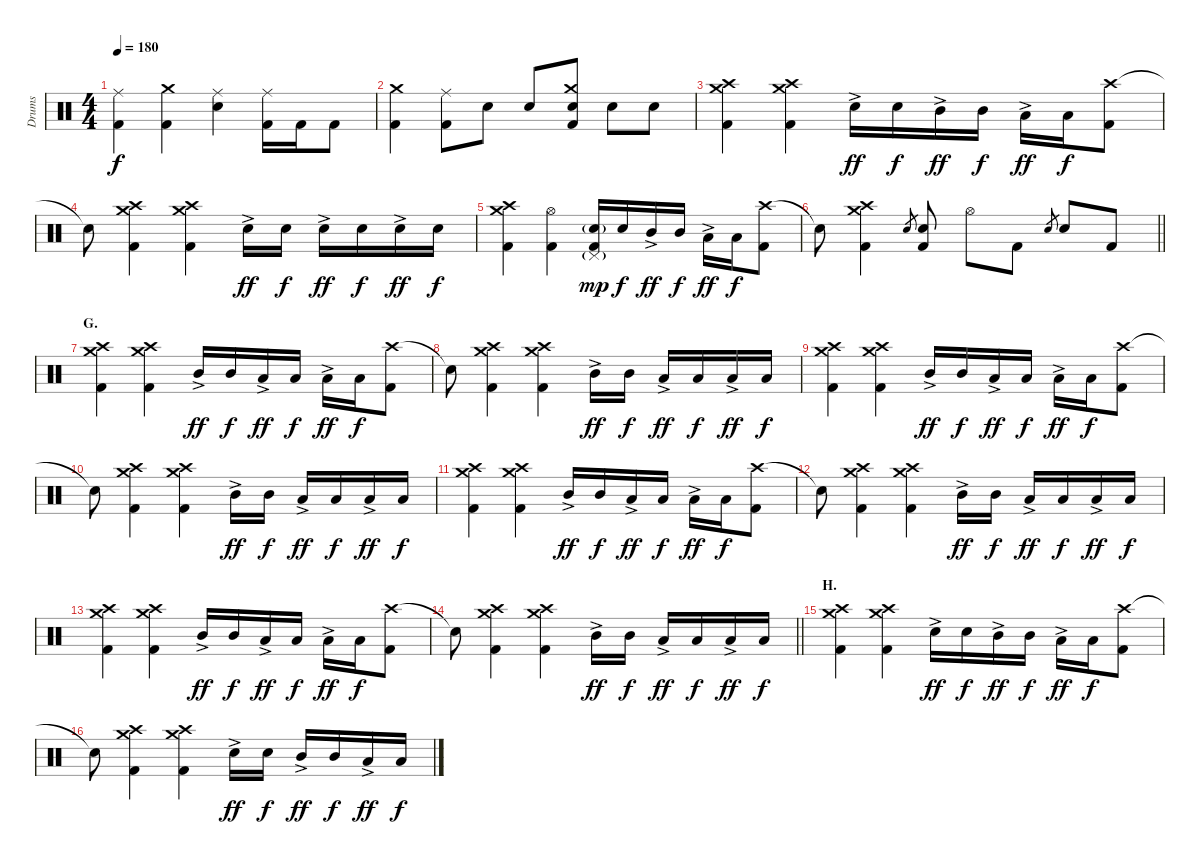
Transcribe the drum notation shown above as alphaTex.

\track ("Drums" "Drums") {instrument percussion}
\staff {score}
\articulation defaults
\ts (4 4)
\tempo 180
\clef neutral
\ks c
("Ride (middle)" "Kick (hit) 2").4{dy f} ("Crash medium (hit)" "Kick (hit) 2").4 ("Ride (middle)" "Electric Snare (hit)").4 ("Ride (middle)" "Kick (hit) 2").16 "Kick (hit) 2".16 "Kick (hit) 2".8 |
("Crash medium (hit)" "Kick (hit) 2").4 ("Ride (middle)" "Kick (hit) 2").8 "Electric Snare (hit)".8 "Electric Snare (hit)".8 ("Crash medium (hit)" "Electric Snare (hit)" "Kick (hit) 2").8 "Electric Snare (hit)".8 "Electric Snare (hit)".8 |
("Crash medium (hit)" "Crash high (hit)" "Kick (hit) 2").4 ("Crash medium (hit)" "Crash high (hit)" "Kick (hit) 2").4 "Electric Snare (hit)"{ac}.16{dy ff} "Electric Snare (hit)".16{dy f} "Mid Tom (hit)"{ac}.16{dy ff} "Mid Tom (hit)".16{dy f} "Low Tom (hit)"{ac}.16{dy ff} "Low Tom (hit)".16{dy f} ("Crash high (hit)" "Kick (hit) 2").8 |
"Snare (hit)"{t}.8 ("Crash medium (hit)" "Crash high (hit)" "Kick (hit) 2").4 ("Crash medium (hit)" "Crash high (hit)" "Kick (hit) 2").4 "Electric Snare (hit)"{ac}.16{dy ff} "Electric Snare (hit)".16{dy f} "Electric Snare (hit)"{ac}.16{dy ff} "Electric Snare (hit)".16{dy f} "Electric Snare (hit)"{ac}.16{dy ff} "Electric Snare (hit)".16{dy f} |
("Crash medium (hit)" "Crash high (hit)" "Kick (hit) 2").4 ("Hi-Hat (open)" "Kick (hit) 2").4 ("Pedal Hi-Hat (hit)"{g} "Electric Snare (hit)"{g} "Kick (hit) 2").16{dy mp} "Electric Snare (hit)".16{dy f} "Mid Tom (hit)"{ac}.16{dy ff} "Mid Tom (hit)".16{dy f} "Low Tom (hit)"{ac}.16{dy ff} "Low Tom (hit)".16{dy f} ("Crash high (hit)" "Kick (hit) 2").8 |
\barLineRight lightlight "Snare (hit)"{t}.8
("Crash medium (hit)" "Crash high (hit)" "Kick (hit) 2").4 "Electric Snare (hit)".8{gr} ("Electric Snare (hit)" "Kick (hit) 2").8 "Hi-Hat (open)".8 "Kick (hit) 2".8 "Electric Snare (hit)".8{gr} "Electric Snare (hit)".8 "Kick (hit) 2".8 |
\section ("" "G.")
("Crash medium (hit)" "Crash high (hit)" "Kick (hit) 2").4 ("Crash medium (hit)" "Crash high (hit)" "Kick (hit) 2").4 "Mid Tom (hit)"{ac}.16{dy ff} "Mid Tom (hit)".16{dy f} "Low Tom (hit)"{ac}.16{dy ff} "Low Tom (hit)".16{dy f} "Low Tom (hit)"{ac}.16{dy ff} "Low Tom (hit)".16{dy f} ("Crash high (hit)" "Kick (hit) 2").8 |
"Snare (hit)"{t}.8 ("Crash medium (hit)" "Crash high (hit)" "Kick (hit) 2").4 ("Crash medium (hit)" "Crash high (hit)" "Kick (hit) 2").4 "Mid Tom (hit)"{ac}.16{dy ff} "Mid Tom (hit)".16{dy f} "Low Tom (hit)"{ac}.16{dy ff} "Low Tom (hit)".16{dy f} "Low Tom (hit)"{ac}.16{dy ff} "Low Tom (hit)".16{dy f} |
("Crash medium (hit)" "Crash high (hit)" "Kick (hit) 2").4 ("Crash medium (hit)" "Crash high (hit)" "Kick (hit) 2").4 "Mid Tom (hit)"{ac}.16{dy ff} "Mid Tom (hit)".16{dy f} "Low Tom (hit)"{ac}.16{dy ff} "Low Tom (hit)".16{dy f} "Low Tom (hit)"{ac}.16{dy ff} "Low Tom (hit)".16{dy f} ("Crash high (hit)" "Kick (hit) 2").8 |
"Snare (hit)"{t}.8 ("Crash medium (hit)" "Crash high (hit)" "Kick (hit) 2").4 ("Crash medium (hit)" "Crash high (hit)" "Kick (hit) 2").4 "Mid Tom (hit)"{ac}.16{dy ff} "Mid Tom (hit)".16{dy f} "Low Tom (hit)"{ac}.16{dy ff} "Low Tom (hit)".16{dy f} "Low Tom (hit)"{ac}.16{dy ff} "Low Tom (hit)".16{dy f} |
("Crash medium (hit)" "Crash high (hit)" "Kick (hit) 2").4 ("Crash medium (hit)" "Crash high (hit)" "Kick (hit) 2").4 "Mid Tom (hit)"{ac}.16{dy ff} "Mid Tom (hit)".16{dy f} "Low Tom (hit)"{ac}.16{dy ff} "Low Tom (hit)".16{dy f} "Low Tom (hit)"{ac}.16{dy ff} "Low Tom (hit)".16{dy f} ("Crash high (hit)" "Kick (hit) 2").8 |
"Snare (hit)"{t}.8 ("Crash medium (hit)" "Crash high (hit)" "Kick (hit) 2").4 ("Crash medium (hit)" "Crash high (hit)" "Kick (hit) 2").4 "Mid Tom (hit)"{ac}.16{dy ff} "Mid Tom (hit)".16{dy f} "Low Tom (hit)"{ac}.16{dy ff} "Low Tom (hit)".16{dy f} "Low Tom (hit)"{ac}.16{dy ff} "Low Tom (hit)".16{dy f} |
("Crash medium (hit)" "Crash high (hit)" "Kick (hit) 2").4 ("Crash medium (hit)" "Crash high (hit)" "Kick (hit) 2").4 "Mid Tom (hit)"{ac}.16{dy ff} "Mid Tom (hit)".16{dy f} "Low Tom (hit)"{ac}.16{dy ff} "Low Tom (hit)".16{dy f} "Low Tom (hit)"{ac}.16{dy ff} "Low Tom (hit)".16{dy f} ("Crash high (hit)" "Kick (hit) 2").8 |
\barLineRight lightlight "Snare (hit)"{t}.8
("Crash medium (hit)" "Crash high (hit)" "Kick (hit) 2").4 ("Crash medium (hit)" "Crash high (hit)" "Kick (hit) 2").4 "Mid Tom (hit)"{ac}.16{dy ff} "Mid Tom (hit)".16{dy f} "Low Tom (hit)"{ac}.16{dy ff} "Low Tom (hit)".16{dy f} "Low Tom (hit)"{ac}.16{dy ff} "Low Tom (hit)".16{dy f} |
\section ("" "H.")
("Crash medium (hit)" "Crash high (hit)" "Kick (hit) 2").4 ("Crash medium (hit)" "Crash high (hit)" "Kick (hit) 2").4 "Electric Snare (hit)"{ac}.16{dy ff} "Electric Snare (hit)".16{dy f} "Mid Tom (hit)"{ac}.16{dy ff} "Mid Tom (hit)".16{dy f} "Low Tom (hit)"{ac}.16{dy ff} "Low Tom (hit)".16{dy f} ("Crash high (hit)" "Kick (hit) 2").8 |
"Snare (hit)"{t}.8 ("Crash medium (hit)" "Crash high (hit)" "Kick (hit) 2").4 ("Crash medium (hit)" "Crash high (hit)" "Kick (hit) 2").4 "Electric Snare (hit)"{ac}.16{dy ff} "Electric Snare (hit)".16{dy f} "Mid Tom (hit)"{ac}.16{dy ff} "Mid Tom (hit)".16{dy f} "Low Tom (hit)"{ac}.16{dy ff} "Low Tom (hit)".16{dy f}
